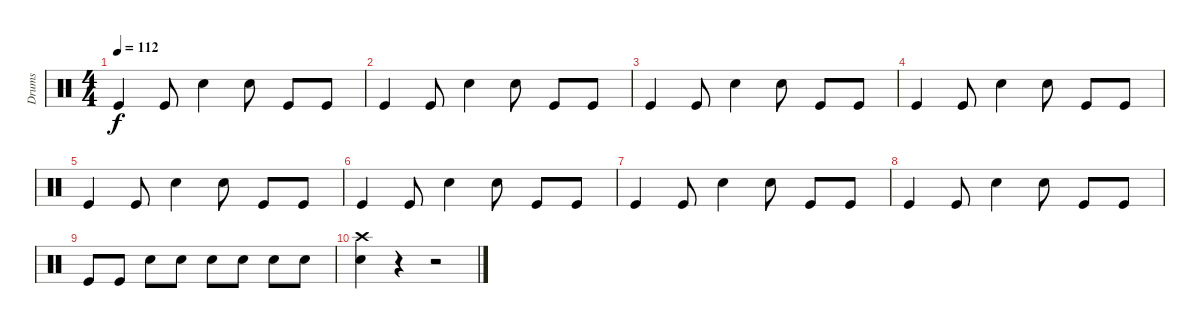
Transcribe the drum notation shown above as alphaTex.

\track ("Drums" "Drums") {instrument percussion}
\staff {score}
\articulation defaults
\ts (4 4)
\tempo 112
\clef neutral
\ks c "Kick (hit)".4{dy f} "Kick (hit)".8 "Snare (hit) 2".4 "Snare (hit) 2".8 "Kick (hit)".8 "Kick (hit)".8
|
"Kick (hit)".4 "Kick (hit)".8 "Snare (hit) 2".4 "Snare (hit) 2".8 "Kick (hit)".8 "Kick (hit)".8 |
"Kick (hit)".4 "Kick (hit)".8 "Snare (hit) 2".4 "Snare (hit) 2".8 "Kick (hit)".8 "Kick (hit)".8 |
"Kick (hit)".4 "Kick (hit)".8 "Snare (hit) 2".4 "Snare (hit) 2".8 "Kick (hit)".8 "Kick (hit)".8 |
"Kick (hit)".4 "Kick (hit)".8 "Snare (hit) 2".4 "Snare (hit) 2".8 "Kick (hit)".8 "Kick (hit)".8 |
"Kick (hit)".4 "Kick (hit)".8 "Snare (hit) 2".4 "Snare (hit) 2".8 "Kick (hit)".8 "Kick (hit)".8 |
"Kick (hit)".4 "Kick (hit)".8 "Snare (hit) 2".4 "Snare (hit) 2".8 "Kick (hit)".8 "Kick (hit)".8 |
"Kick (hit)".4 "Kick (hit)".8 "Snare (hit) 2".4 "Snare (hit) 2".8 "Kick (hit)".8 "Kick (hit)".8 |
"Kick (hit)".8 "Kick (hit)".8 "Snare (hit) 2".8 "Snare (hit) 2".8 "Snare (hit) 2".8 "Snare (hit) 2".8 "Snare (hit) 2".8 "Snare (hit) 2".8 |
("Crash high (hit)" "Electric Snare (hit)").4 r.4 r.2
